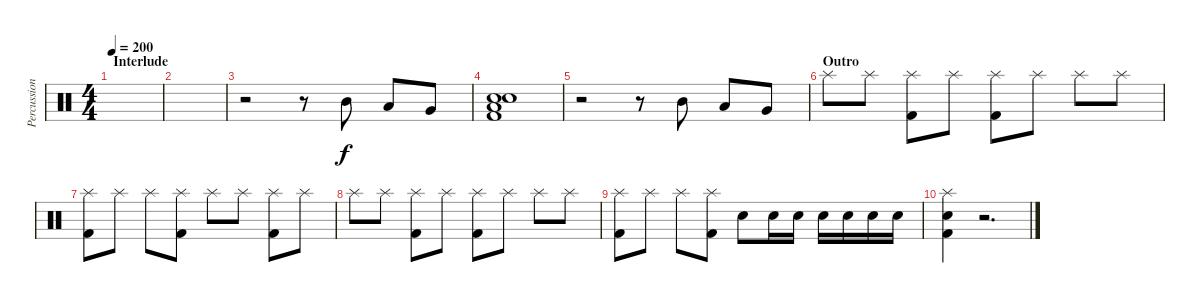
\track ("Percussion" "Percussion") {instrument percussion}
\staff {score}
\articulation defaults
\ts (4 4)
\section ("" "Interlude")
\tempo 200
\clef neutral
\ks c
|
|
r.2 r.8 "Mid Tom (hit)".8 "Low Tom (hit)".8 "Very Low Tom (hit)".8 |
("Snare (hit) 2" "Low Floor Tom (hit)" "Electric Snare (hit)" "Kick (hit) 2").1 |
r.2 r.8 "Mid Tom (hit)".8 "Low Tom (hit)".8 "Very Low Tom (hit)".8 |
\section ("" "Outro")
"Splash (hit)".8 "Splash (hit)".8 ("Splash (hit)" "Kick (hit) 2").8 "Splash (hit)".8 ("Splash (hit)" "Kick (hit) 2").8 "Splash (hit)".8 "Splash (hit)".8 "Splash (hit)".8 |
("Splash (hit)" "Kick (hit) 2").8 "Splash (hit)".8 "Splash (hit)".8 ("Splash (hit)" "Kick (hit) 2").8 "Splash (hit)".8 "Splash (hit)".8 ("Splash (hit)" "Kick (hit) 2").8 "Splash (hit)".8 |
"Splash (hit)".8 "Splash (hit)".8 ("Splash (hit)" "Kick (hit) 2").8 "Splash (hit)".8 ("Splash (hit)" "Kick (hit) 2").8 "Splash (hit)".8 "Splash (hit)".8 "Splash (hit)".8 |
("Splash (hit)" "Kick (hit) 2").8 "Splash (hit)".8 "Splash (hit)".8 ("Splash (hit)" "Kick (hit) 2").8 "Electric Snare (hit)".8 "Electric Snare (hit)".16 "Electric Snare (hit)".16 "Electric Snare (hit)".16 "Electric Snare (hit)".16 "Electric Snare (hit)".16 "Electric Snare (hit)".16 |
("Splash (hit)" "Electric Snare (hit)" "Kick (hit) 2").4 r.2{d}
